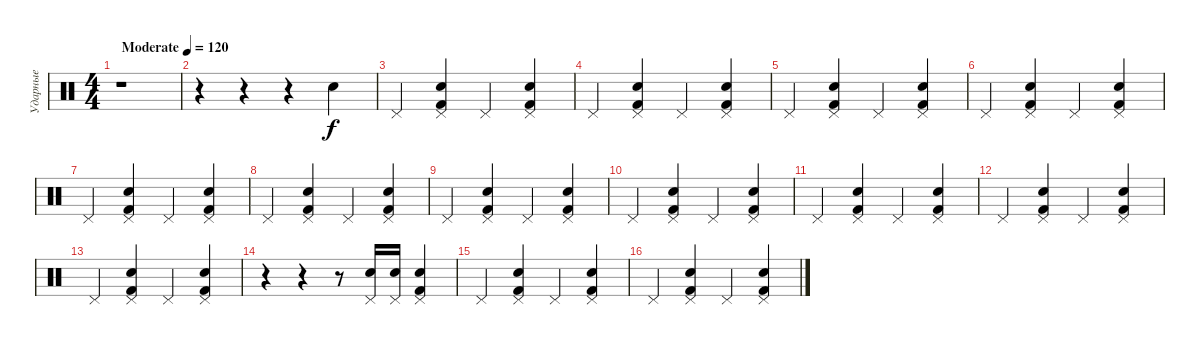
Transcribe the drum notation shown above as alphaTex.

\track ("Ударные" "Ударные") {instrument percussion}
\staff {score}
\articulation defaults
\ts (4 4)
\tempo (120 "Moderate")
\clef neutral
\ks c
r.1{dy f} |
r.4 r.4 r.4 "Electric Snare (hit)".4 |
"Pedal Hi-Hat (hit)".4 ("Electric Snare (hit)" "Pedal Hi-Hat (hit)" "Kick (hit) 2").4 "Pedal Hi-Hat (hit)".4 ("Electric Snare (hit)" "Pedal Hi-Hat (hit)" "Kick (hit) 2").4 |
"Pedal Hi-Hat (hit)".4 ("Electric Snare (hit)" "Pedal Hi-Hat (hit)" "Kick (hit) 2").4 "Pedal Hi-Hat (hit)".4 ("Electric Snare (hit)" "Pedal Hi-Hat (hit)" "Kick (hit) 2").4 |
"Pedal Hi-Hat (hit)".4 ("Electric Snare (hit)" "Pedal Hi-Hat (hit)" "Kick (hit) 2").4 "Pedal Hi-Hat (hit)".4 ("Electric Snare (hit)" "Pedal Hi-Hat (hit)" "Kick (hit) 2").4 |
"Pedal Hi-Hat (hit)".4 ("Electric Snare (hit)" "Pedal Hi-Hat (hit)" "Kick (hit) 2").4 "Pedal Hi-Hat (hit)".4 ("Electric Snare (hit)" "Pedal Hi-Hat (hit)" "Kick (hit) 2").4 |
"Pedal Hi-Hat (hit)".4 ("Electric Snare (hit)" "Pedal Hi-Hat (hit)" "Kick (hit) 2").4 "Pedal Hi-Hat (hit)".4 ("Electric Snare (hit)" "Pedal Hi-Hat (hit)" "Kick (hit) 2").4 |
"Pedal Hi-Hat (hit)".4 ("Electric Snare (hit)" "Pedal Hi-Hat (hit)" "Kick (hit) 2").4 "Pedal Hi-Hat (hit)".4 ("Electric Snare (hit)" "Pedal Hi-Hat (hit)" "Kick (hit) 2").4 |
"Pedal Hi-Hat (hit)".4 ("Electric Snare (hit)" "Pedal Hi-Hat (hit)" "Kick (hit) 2").4 "Pedal Hi-Hat (hit)".4 ("Electric Snare (hit)" "Pedal Hi-Hat (hit)" "Kick (hit) 2").4 |
"Pedal Hi-Hat (hit)".4 ("Electric Snare (hit)" "Pedal Hi-Hat (hit)" "Kick (hit) 2").4 "Pedal Hi-Hat (hit)".4 ("Electric Snare (hit)" "Pedal Hi-Hat (hit)" "Kick (hit) 2").4 |
"Pedal Hi-Hat (hit)".4 ("Electric Snare (hit)" "Pedal Hi-Hat (hit)" "Kick (hit) 2").4 "Pedal Hi-Hat (hit)".4 ("Electric Snare (hit)" "Pedal Hi-Hat (hit)" "Kick (hit) 2").4 |
"Pedal Hi-Hat (hit)".4 ("Electric Snare (hit)" "Pedal Hi-Hat (hit)" "Kick (hit) 2").4 "Pedal Hi-Hat (hit)".4 ("Electric Snare (hit)" "Pedal Hi-Hat (hit)" "Kick (hit) 2").4 |
"Pedal Hi-Hat (hit)".4 ("Electric Snare (hit)" "Pedal Hi-Hat (hit)" "Kick (hit) 2").4 "Pedal Hi-Hat (hit)".4 ("Electric Snare (hit)" "Pedal Hi-Hat (hit)" "Kick (hit) 2").4 |
r.4 r.4 r.8 ("Electric Snare (hit)" "Pedal Hi-Hat (hit)").16 ("Electric Snare (hit)" "Pedal Hi-Hat (hit)").16 ("Electric Snare (hit)" "Pedal Hi-Hat (hit)" "Kick (hit) 2").4 |
"Pedal Hi-Hat (hit)".4 ("Electric Snare (hit)" "Pedal Hi-Hat (hit)" "Kick (hit) 2").4 "Pedal Hi-Hat (hit)".4 ("Electric Snare (hit)" "Pedal Hi-Hat (hit)" "Kick (hit) 2").4 |
"Pedal Hi-Hat (hit)".4 ("Electric Snare (hit)" "Pedal Hi-Hat (hit)" "Kick (hit) 2").4 "Pedal Hi-Hat (hit)".4 ("Electric Snare (hit)" "Pedal Hi-Hat (hit)" "Kick (hit) 2").4
